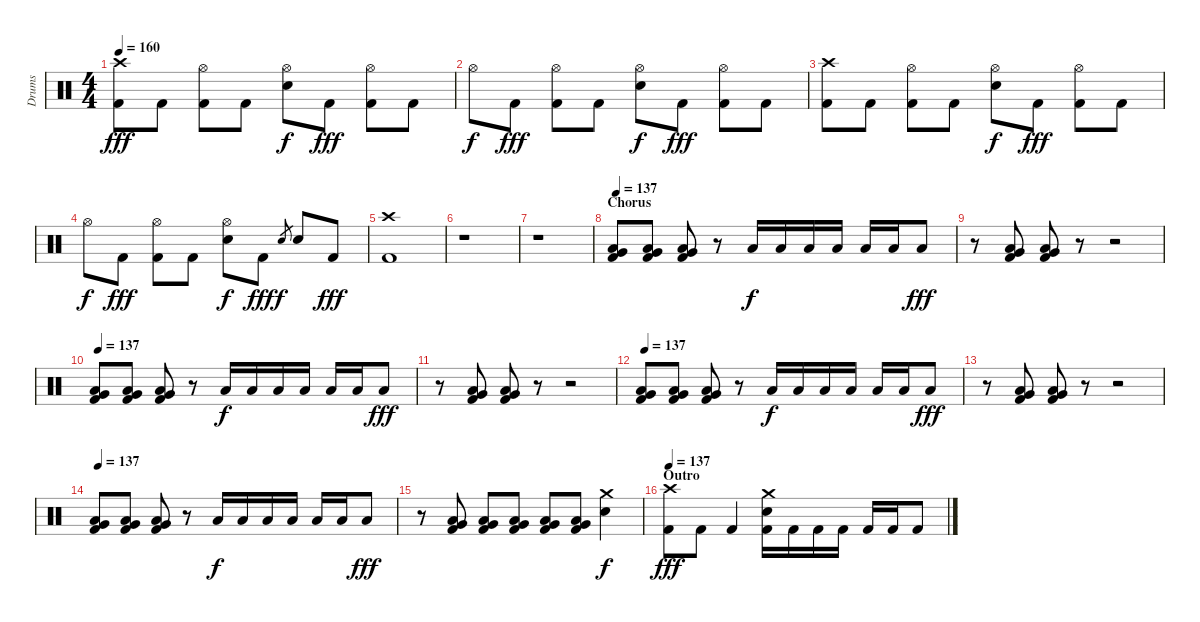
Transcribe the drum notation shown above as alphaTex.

\track ("Drums" "Drums") {instrument percussion}
\staff {score}
\articulation defaults
\ts (4 4)
\tempo 160
\clef neutral
\ks c
("Crash high (hit)" "Kick (hit) 2").8{dy fff} "Kick (hit) 2".8 ("Hi-Hat (open)" "Kick (hit) 2").8 "Kick (hit) 2".8 ("Hi-Hat (open)" "Snare (hit) 2").8{dy f} "Kick (hit) 2".8{dy fff} ("Hi-Hat (open)" "Kick (hit) 2").8 "Kick (hit) 2".8 |
"Hi-Hat (open)".8{dy f} "Kick (hit) 2".8{dy fff} ("Hi-Hat (open)" "Kick (hit) 2").8 "Kick (hit) 2".8 ("Hi-Hat (open)" "Snare (hit) 2").8{dy f} "Kick (hit) 2".8{dy fff} ("Hi-Hat (open)" "Kick (hit) 2").8 "Kick (hit) 2".8 |
("Crash high (hit)" "Kick (hit) 2").8 "Kick (hit) 2".8 ("Hi-Hat (open)" "Kick (hit) 2").8 "Kick (hit) 2".8 ("Hi-Hat (open)" "Snare (hit) 2").8{dy f} "Kick (hit) 2".8{dy fff} ("Hi-Hat (open)" "Kick (hit) 2").8 "Kick (hit) 2".8 |
"Hi-Hat (open)".8{dy f} "Kick (hit) 2".8{dy fff} ("Hi-Hat (open)" "Kick (hit) 2").8 "Kick (hit) 2".8 ("Hi-Hat (open)" "Snare (hit) 2").8{dy f} "Kick (hit) 2".8{dy fff} "Snare (hit) 2".8{gr dy f} "Snare (hit) 2".8 "Kick (hit) 2".8{dy fff} |
("Crash high (hit)" "Kick (hit) 2").1 |
r.1 |
r.1 |
\section ("" "Chorus")
\tempo 137
("Very Low Tom (hit)" "Low Floor Tom (hit)" "Kick (hit) 2").8 ("Very Low Tom (hit)" "Low Floor Tom (hit)" "Kick (hit) 2").8 ("Very Low Tom (hit)" "Low Floor Tom (hit)" "Kick (hit) 2").8 r.8 "Low Floor Tom (hit)".16{dy f} "Low Floor Tom (hit)".16 "Low Floor Tom (hit)".16 "Low Floor Tom (hit)".16 "Low Floor Tom (hit)".16 "Low Floor Tom (hit)".16 "Low Floor Tom (hit)".8{dy fff} |
r.8 ("Very Low Tom (hit)" "Low Floor Tom (hit)" "Kick (hit) 2").8 ("Very Low Tom (hit)" "Low Floor Tom (hit)" "Kick (hit) 2").8 r.8 r.2 |
\tempo 137
("Very Low Tom (hit)" "Low Floor Tom (hit)" "Kick (hit) 2").8 ("Very Low Tom (hit)" "Low Floor Tom (hit)" "Kick (hit) 2").8 ("Very Low Tom (hit)" "Low Floor Tom (hit)" "Kick (hit) 2").8 r.8 "Low Floor Tom (hit)".16{dy f} "Low Floor Tom (hit)".16 "Low Floor Tom (hit)".16 "Low Floor Tom (hit)".16 "Low Floor Tom (hit)".16 "Low Floor Tom (hit)".16 "Low Floor Tom (hit)".8{dy fff} |
r.8 ("Very Low Tom (hit)" "Low Floor Tom (hit)" "Kick (hit) 2").8 ("Very Low Tom (hit)" "Low Floor Tom (hit)" "Kick (hit) 2").8 r.8 r.2 |
\tempo 137
("Very Low Tom (hit)" "Low Floor Tom (hit)" "Kick (hit) 2").8 ("Very Low Tom (hit)" "Low Floor Tom (hit)" "Kick (hit) 2").8 ("Very Low Tom (hit)" "Low Floor Tom (hit)" "Kick (hit) 2").8 r.8 "Low Floor Tom (hit)".16{dy f} "Low Floor Tom (hit)".16 "Low Floor Tom (hit)".16 "Low Floor Tom (hit)".16 "Low Floor Tom (hit)".16 "Low Floor Tom (hit)".16 "Low Floor Tom (hit)".8{dy fff} |
r.8 ("Very Low Tom (hit)" "Low Floor Tom (hit)" "Kick (hit) 2").8 ("Very Low Tom (hit)" "Low Floor Tom (hit)" "Kick (hit) 2").8 r.8 r.2 |
\tempo 137
("Very Low Tom (hit)" "Low Floor Tom (hit)" "Kick (hit) 2").8 ("Very Low Tom (hit)" "Low Floor Tom (hit)" "Kick (hit) 2").8 ("Very Low Tom (hit)" "Low Floor Tom (hit)" "Kick (hit) 2").8 r.8 "Low Floor Tom (hit)".16{dy f} "Low Floor Tom (hit)".16 "Low Floor Tom (hit)".16 "Low Floor Tom (hit)".16 "Low Floor Tom (hit)".16 "Low Floor Tom (hit)".16 "Low Floor Tom (hit)".8{dy fff} |
r.8 ("Very Low Tom (hit)" "Low Floor Tom (hit)" "Kick (hit) 2").8 ("Very Low Tom (hit)" "Low Floor Tom (hit)" "Kick (hit) 2").8 ("Very Low Tom (hit)" "Low Floor Tom (hit)" "Kick (hit) 2").8 ("Very Low Tom (hit)" "Low Floor Tom (hit)" "Kick (hit) 2").8 ("Very Low Tom (hit)" "Low Floor Tom (hit)" "Kick (hit) 2").8 ("Crash medium (hit)" "Snare (hit) 2").4{dy f} |
\section ("" "Outro")
\tempo 137
("Crash high (hit)" "Kick (hit) 2").8{dy fff} "Kick (hit) 2".8 "Kick (hit) 2".4 ("Crash medium (hit)" "Snare (hit) 2" "Kick (hit) 2").16 "Kick (hit) 2".16 "Kick (hit) 2".16 "Kick (hit) 2".16 "Kick (hit) 2".16 "Kick (hit) 2".16 "Kick (hit) 2".8
